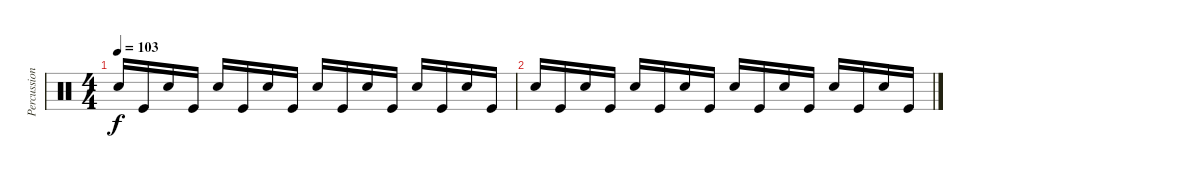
\track ("Percussion" "Percussion") {instrument percussion}
\staff {score}
\articulation defaults
\ts (4 4)
\tempo 103
\clef neutral
\ks c "Electric Snare (hit)".16{dy f volume 2} "Kick (hit)".16 "Electric Snare (hit)".16 "Kick (hit)".16 "Electric Snare (hit)".16 "Kick (hit)".16 "Electric Snare (hit)".16 "Kick (hit)".16 "Electric Snare (hit)".16 "Kick (hit)".16 "Electric Snare (hit)".16 "Kick (hit)".16 "Electric Snare (hit)".16 "Kick (hit)".16 "Electric Snare (hit)".16 "Kick (hit)".16
|
"Electric Snare (hit)".16{volume 1} "Kick (hit)".16 "Electric Snare (hit)".16 "Kick (hit)".16 "Electric Snare (hit)".16 "Kick (hit)".16 "Electric Snare (hit)".16 "Kick (hit)".16 "Electric Snare (hit)".16 "Kick (hit)".16 "Electric Snare (hit)".16 "Kick (hit)".16 "Electric Snare (hit)".16 "Kick (hit)".16 "Electric Snare (hit)".16 "Kick (hit)".16
